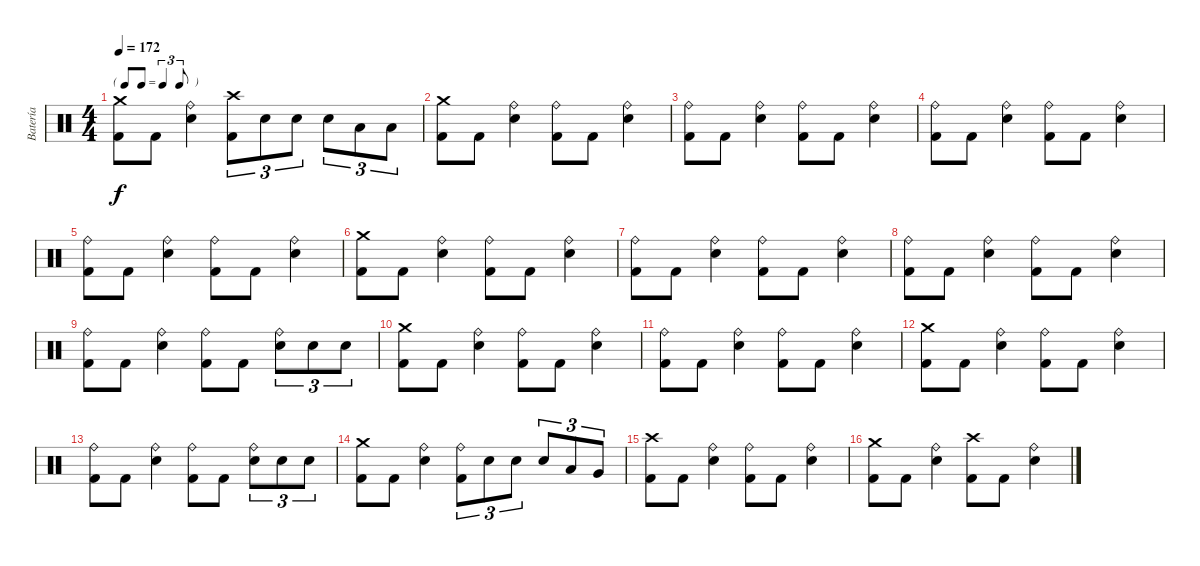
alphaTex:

\track ("Batería" "Batería") {instrument percussion}
\staff {score}
\articulation defaults
\ts (4 4)
\tf triplet8th
\tempo 172
\clef neutral
\ks c
("Kick (hit) 2" "Crash medium (hit)").8{dy f} "Kick (hit) 2".8 ("Electric Snare (hit)" "Ride (bell)").4 ("Kick (hit) 2" "Crash high (hit)").8{tu (3 2)} "Electric Snare (hit)".8{tu (3 2)} "Electric Snare (hit)".8{tu (3 2)} "Electric Snare (hit)".8{tu (3 2)} "Low Floor Tom (hit)".8{tu (3 2)} "Low Tom (hit)".8{tu (3 2)} |
("Kick (hit) 2" "Crash medium (hit)").8 "Kick (hit) 2".8 ("Electric Snare (hit)" "Ride (bell)").4 ("Kick (hit) 2" "Ride (bell)").8 "Kick (hit) 2".8 ("Electric Snare (hit)" "Ride (bell)").4 |
("Kick (hit) 2" "Ride (bell)").8 "Kick (hit) 2".8 ("Electric Snare (hit)" "Ride (bell)").4 ("Kick (hit) 2" "Ride (bell)").8 "Kick (hit) 2".8 ("Electric Snare (hit)" "Ride (bell)").4 |
("Kick (hit) 2" "Ride (bell)").8 "Kick (hit) 2".8 ("Electric Snare (hit)" "Ride (bell)").4 ("Kick (hit) 2" "Ride (bell)").8 "Kick (hit) 2".8 ("Electric Snare (hit)" "Ride (bell)").4 |
("Kick (hit) 2" "Ride (bell)").8 "Kick (hit) 2".8 ("Electric Snare (hit)" "Ride (bell)").4 ("Kick (hit) 2" "Ride (bell)").8 "Kick (hit) 2".8 ("Electric Snare (hit)" "Ride (bell)").4 |
("Kick (hit) 2" "Crash medium (hit)").8 "Kick (hit) 2".8 ("Electric Snare (hit)" "Ride (bell)").4 ("Kick (hit) 2" "Ride (bell)").8 "Kick (hit) 2".8 ("Electric Snare (hit)" "Ride (bell)").4 |
("Kick (hit) 2" "Ride (bell)").8 "Kick (hit) 2".8 ("Electric Snare (hit)" "Ride (bell)").4 ("Kick (hit) 2" "Ride (bell)").8 "Kick (hit) 2".8 ("Electric Snare (hit)" "Ride (bell)").4 |
("Kick (hit) 2" "Ride (bell)").8 "Kick (hit) 2".8 ("Electric Snare (hit)" "Ride (bell)").4 ("Kick (hit) 2" "Ride (bell)").8 "Kick (hit) 2".8 ("Electric Snare (hit)" "Ride (bell)").4 |
("Kick (hit) 2" "Ride (bell)").8 "Kick (hit) 2".8 ("Electric Snare (hit)" "Ride (bell)").4 ("Kick (hit) 2" "Ride (bell)").8 "Kick (hit) 2".8 ("Electric Snare (hit)" "Ride (bell)").8{tu (3 2)} "Electric Snare (hit)".8{tu (3 2)} "Electric Snare (hit)".8{tu (3 2)} |
("Kick (hit) 2" "Crash medium (hit)").8 "Kick (hit) 2".8 ("Electric Snare (hit)" "Ride (bell)").4 ("Kick (hit) 2" "Ride (bell)").8 "Kick (hit) 2".8 ("Electric Snare (hit)" "Ride (bell)").4 |
("Kick (hit) 2" "Ride (bell)").8 "Kick (hit) 2".8 ("Electric Snare (hit)" "Ride (bell)").4 ("Kick (hit) 2" "Ride (bell)").8 "Kick (hit) 2".8 ("Electric Snare (hit)" "Ride (bell)").4 |
("Kick (hit) 2" "Crash medium (hit)").8 "Kick (hit) 2".8 ("Electric Snare (hit)" "Ride (bell)").4 ("Kick (hit) 2" "Ride (bell)").8 "Kick (hit) 2".8 ("Electric Snare (hit)" "Ride (bell)").4 |
("Kick (hit) 2" "Ride (bell)").8 "Kick (hit) 2".8 ("Electric Snare (hit)" "Ride (bell)").4 ("Kick (hit) 2" "Ride (bell)").8 "Kick (hit) 2".8 ("Electric Snare (hit)" "Ride (bell)").8{tu (3 2)} "Electric Snare (hit)".8{tu (3 2)} "Electric Snare (hit)".8{tu (3 2)} |
("Kick (hit) 2" "Crash medium (hit)").8 "Kick (hit) 2".8 ("Electric Snare (hit)" "Ride (bell)").4 ("Kick (hit) 2" "Ride (bell)").8{tu (3 2)} "Electric Snare (hit)".8{tu (3 2)} "Electric Snare (hit)".8{tu (3 2)} "Electric Snare (hit)".8{tu (3 2)} "Low Floor Tom (hit)".8{tu (3 2)} "Very Low Tom (hit)".8{tu (3 2)} |
("Kick (hit) 2" "Crash high (hit)").8 "Kick (hit) 2".8 ("Electric Snare (hit)" "Ride (bell)").4 ("Kick (hit) 2" "Ride (bell)").8 "Kick (hit) 2".8 ("Electric Snare (hit)" "Ride (bell)").4 |
("Kick (hit) 2" "Crash medium (hit)").8 "Kick (hit) 2".8 ("Electric Snare (hit)" "Ride (bell)").4 ("Kick (hit) 2" "Crash high (hit)").8 "Kick (hit) 2".8 ("Electric Snare (hit)" "Ride (bell)").4
